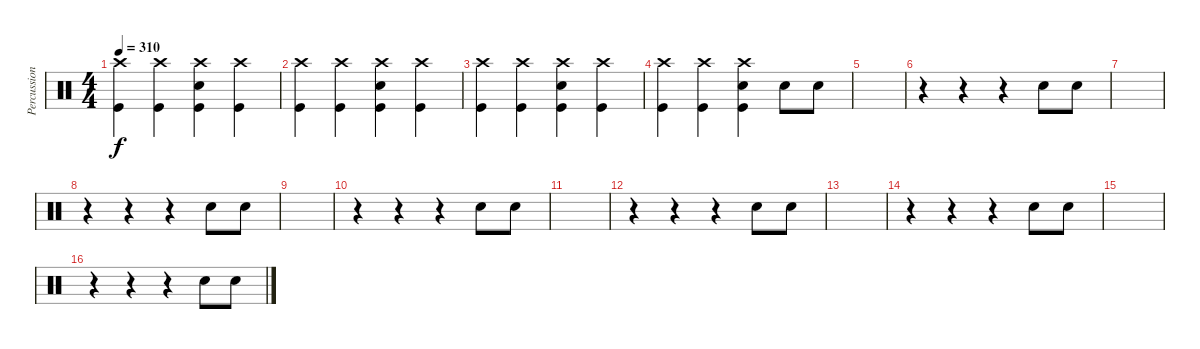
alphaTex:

\track ("Percussion" "Percussion") {instrument percussion}
\staff {score}
\articulation defaults
\ts (4 4)
\tempo 310
\clef neutral
\ks c
("Crash high (hit)" "Kick (hit)").4{dy f} ("Crash high (hit)" "Kick (hit)").4 ("Crash high (hit)" "Electric Snare (hit)" "Kick (hit)").4 ("Crash high (hit)" "Kick (hit)").4 |
("Crash high (hit)" "Kick (hit)").4 ("Crash high (hit)" "Kick (hit)").4 ("Crash high (hit)" "Electric Snare (hit)" "Kick (hit)").4 ("Crash high (hit)" "Kick (hit)").4 |
("Crash high (hit)" "Kick (hit)").4 ("Crash high (hit)" "Kick (hit)").4 ("Crash high (hit)" "Electric Snare (hit)" "Kick (hit)").4 ("Crash high (hit)" "Kick (hit)").4 |
("Crash high (hit)" "Kick (hit)").4 ("Crash high (hit)" "Kick (hit)").4 ("Crash high (hit)" "Electric Snare (hit)" "Kick (hit)").4 "Electric Snare (hit)".8 "Electric Snare (hit)".8 |
|
r.4 r.4 r.4 "Electric Snare (hit)".8 "Electric Snare (hit)".8 |
|
r.4 r.4 r.4 "Electric Snare (hit)".8 "Electric Snare (hit)".8 |
|
r.4 r.4 r.4 "Electric Snare (hit)".8 "Electric Snare (hit)".8 |
|
r.4 r.4 r.4 "Electric Snare (hit)".8 "Electric Snare (hit)".8 |
|
r.4 r.4 r.4 "Electric Snare (hit)".8 "Electric Snare (hit)".8 |
|
r.4 r.4 r.4 "Electric Snare (hit)".8 "Electric Snare (hit)".8
